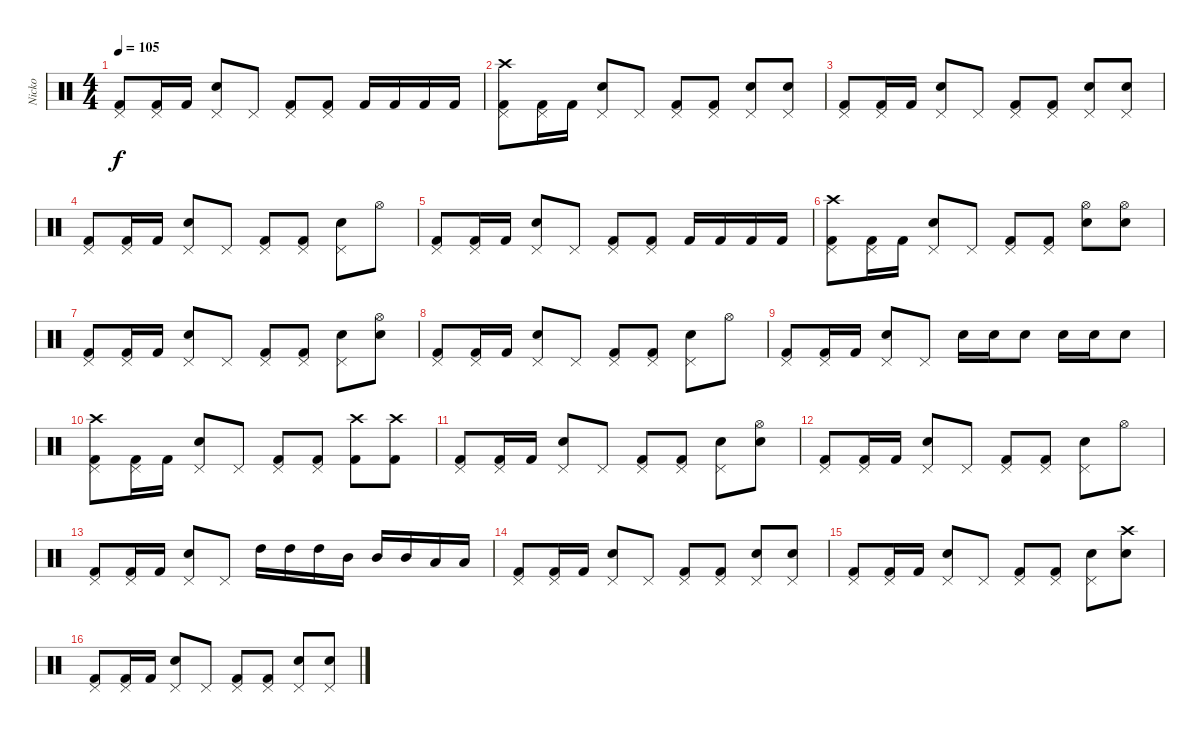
\track ("Nicko" "Nicko") {instrument percussion}
\staff {score}
\articulation defaults
\ts (4 4)
\tempo 105
\clef neutral
\ks c
("Kick (hit) 2" "Pedal Hi-Hat (hit)").8{dy f} ("Kick (hit) 2" "Pedal Hi-Hat (hit)").16 "Kick (hit) 2".16 ("Snare (hit) 2" "Pedal Hi-Hat (hit)").8 "Pedal Hi-Hat (hit)".8 ("Kick (hit) 2" "Pedal Hi-Hat (hit)").8 ("Kick (hit) 2" "Pedal Hi-Hat (hit)").8 "Kick (hit) 2".16 "Kick (hit) 2".16 "Kick (hit) 2".16 "Kick (hit) 2".16 |
("Kick (hit) 2" "Pedal Hi-Hat (hit)" "Crash high (hit)").8 ("Kick (hit) 2" "Pedal Hi-Hat (hit)").16 "Kick (hit) 2".16 ("Snare (hit) 2" "Pedal Hi-Hat (hit)").8 "Pedal Hi-Hat (hit)".8 ("Kick (hit) 2" "Pedal Hi-Hat (hit)").8 ("Kick (hit) 2" "Pedal Hi-Hat (hit)").8 ("Snare (hit) 2" "Pedal Hi-Hat (hit)").8 ("Snare (hit) 2" "Pedal Hi-Hat (hit)").8 |
("Kick (hit) 2" "Pedal Hi-Hat (hit)").8 ("Kick (hit) 2" "Pedal Hi-Hat (hit)").16 "Kick (hit) 2".16 ("Snare (hit) 2" "Pedal Hi-Hat (hit)").8 "Pedal Hi-Hat (hit)".8 ("Kick (hit) 2" "Pedal Hi-Hat (hit)").8 ("Kick (hit) 2" "Pedal Hi-Hat (hit)").8 ("Snare (hit) 2" "Pedal Hi-Hat (hit)").8 ("Snare (hit) 2" "Pedal Hi-Hat (hit)").8 |
("Kick (hit) 2" "Pedal Hi-Hat (hit)").8 ("Kick (hit) 2" "Pedal Hi-Hat (hit)").16 "Kick (hit) 2".16 ("Snare (hit) 2" "Pedal Hi-Hat (hit)").8 "Pedal Hi-Hat (hit)".8 ("Kick (hit) 2" "Pedal Hi-Hat (hit)").8 ("Kick (hit) 2" "Pedal Hi-Hat (hit)").8 ("Snare (hit) 2" "Pedal Hi-Hat (hit)").8 "Hi-Hat (open)".8 |
("Kick (hit) 2" "Pedal Hi-Hat (hit)").8 ("Kick (hit) 2" "Pedal Hi-Hat (hit)").16 "Kick (hit) 2".16 ("Snare (hit) 2" "Pedal Hi-Hat (hit)").8 "Pedal Hi-Hat (hit)".8 ("Kick (hit) 2" "Pedal Hi-Hat (hit)").8 ("Kick (hit) 2" "Pedal Hi-Hat (hit)").8 "Kick (hit) 2".16 "Kick (hit) 2".16 "Kick (hit) 2".16 "Kick (hit) 2".16 |
("Kick (hit) 2" "Pedal Hi-Hat (hit)" "Crash high (hit)").8 ("Kick (hit) 2" "Pedal Hi-Hat (hit)").16 "Kick (hit) 2".16 ("Snare (hit) 2" "Pedal Hi-Hat (hit)").8 "Pedal Hi-Hat (hit)".8 ("Kick (hit) 2" "Pedal Hi-Hat (hit)").8 ("Kick (hit) 2" "Pedal Hi-Hat (hit)").8 ("Snare (hit) 2" "Hi-Hat (open)").8 ("Snare (hit) 2" "Hi-Hat (open)").8 |
("Kick (hit) 2" "Pedal Hi-Hat (hit)").8 ("Kick (hit) 2" "Pedal Hi-Hat (hit)").16 "Kick (hit) 2".16 ("Snare (hit) 2" "Pedal Hi-Hat (hit)").8 "Pedal Hi-Hat (hit)".8 ("Kick (hit) 2" "Pedal Hi-Hat (hit)").8 ("Kick (hit) 2" "Pedal Hi-Hat (hit)").8 ("Snare (hit) 2" "Pedal Hi-Hat (hit)").8 ("Snare (hit) 2" "Hi-Hat (open)").8 |
("Kick (hit) 2" "Pedal Hi-Hat (hit)").8 ("Kick (hit) 2" "Pedal Hi-Hat (hit)").16 "Kick (hit) 2".16 ("Snare (hit) 2" "Pedal Hi-Hat (hit)").8 "Pedal Hi-Hat (hit)".8 ("Kick (hit) 2" "Pedal Hi-Hat (hit)").8 ("Kick (hit) 2" "Pedal Hi-Hat (hit)").8 ("Snare (hit) 2" "Pedal Hi-Hat (hit)").8 "Hi-Hat (open)".8 |
("Kick (hit) 2" "Pedal Hi-Hat (hit)").8 ("Kick (hit) 2" "Pedal Hi-Hat (hit)").16 "Kick (hit) 2".16 ("Snare (hit) 2" "Pedal Hi-Hat (hit)").8 "Pedal Hi-Hat (hit)".8 "Snare (hit) 2".16 "Snare (hit) 2".16 "Snare (hit) 2".8 "Snare (hit) 2".16 "Snare (hit) 2".16 "Snare (hit) 2".8 |
("Kick (hit) 2" "Pedal Hi-Hat (hit)" "Crash high (hit)").8 ("Kick (hit) 2" "Pedal Hi-Hat (hit)").16 "Kick (hit) 2".16 ("Snare (hit) 2" "Pedal Hi-Hat (hit)").8 "Pedal Hi-Hat (hit)".8 ("Kick (hit) 2" "Pedal Hi-Hat (hit)").8 ("Kick (hit) 2" "Pedal Hi-Hat (hit)").8 ("Kick (hit) 2" "Crash high (hit)").8 ("Kick (hit) 2" "Crash high (hit)").8 |
("Kick (hit) 2" "Pedal Hi-Hat (hit)").8 ("Kick (hit) 2" "Pedal Hi-Hat (hit)").16 "Kick (hit) 2".16 ("Snare (hit) 2" "Pedal Hi-Hat (hit)").8 "Pedal Hi-Hat (hit)".8 ("Kick (hit) 2" "Pedal Hi-Hat (hit)").8 ("Kick (hit) 2" "Pedal Hi-Hat (hit)").8 ("Snare (hit) 2" "Pedal Hi-Hat (hit)").8 ("Snare (hit) 2" "Hi-Hat (open)").8 |
("Kick (hit) 2" "Pedal Hi-Hat (hit)").8 ("Kick (hit) 2" "Pedal Hi-Hat (hit)").16 "Kick (hit) 2".16 ("Snare (hit) 2" "Pedal Hi-Hat (hit)").8 "Pedal Hi-Hat (hit)".8 ("Kick (hit) 2" "Pedal Hi-Hat (hit)").8 ("Kick (hit) 2" "Pedal Hi-Hat (hit)").8 ("Snare (hit) 2" "Pedal Hi-Hat (hit)").8 "Hi-Hat (open)".8 |
("Kick (hit) 2" "Pedal Hi-Hat (hit)").8 ("Kick (hit) 2" "Pedal Hi-Hat (hit)").16 "Kick (hit) 2".16 ("Snare (hit) 2" "Pedal Hi-Hat (hit)").8 "Pedal Hi-Hat (hit)".8 "High Tom (hit)".16 "High Tom (hit)".16 "High Tom (hit)".16 "Mid Tom (hit)".16 "Mid Tom (hit)".16 "Mid Tom (hit)".16 "Low Tom (hit)".16 "Low Tom (hit)".16 |
("Kick (hit) 2" "Pedal Hi-Hat (hit)").8 ("Kick (hit) 2" "Pedal Hi-Hat (hit)").16 "Kick (hit) 2".16 ("Snare (hit) 2" "Pedal Hi-Hat (hit)").8 "Pedal Hi-Hat (hit)".8 ("Kick (hit) 2" "Pedal Hi-Hat (hit)").8 ("Kick (hit) 2" "Pedal Hi-Hat (hit)").8 ("Snare (hit) 2" "Pedal Hi-Hat (hit)").8 ("Snare (hit) 2" "Pedal Hi-Hat (hit)").8 |
("Kick (hit) 2" "Pedal Hi-Hat (hit)").8 ("Kick (hit) 2" "Pedal Hi-Hat (hit)").16 "Kick (hit) 2".16 ("Snare (hit) 2" "Pedal Hi-Hat (hit)").8 "Pedal Hi-Hat (hit)".8 ("Kick (hit) 2" "Pedal Hi-Hat (hit)").8 ("Kick (hit) 2" "Pedal Hi-Hat (hit)").8 ("Snare (hit) 2" "Pedal Hi-Hat (hit)").8 ("Snare (hit) 2" "Crash high (hit)").8 |
("Kick (hit) 2" "Pedal Hi-Hat (hit)").8 ("Kick (hit) 2" "Pedal Hi-Hat (hit)").16 "Kick (hit) 2".16 ("Snare (hit) 2" "Pedal Hi-Hat (hit)").8 "Pedal Hi-Hat (hit)".8 ("Kick (hit) 2" "Pedal Hi-Hat (hit)").8 ("Kick (hit) 2" "Pedal Hi-Hat (hit)").8 ("Snare (hit) 2" "Pedal Hi-Hat (hit)").8 ("Snare (hit) 2" "Pedal Hi-Hat (hit)").8
